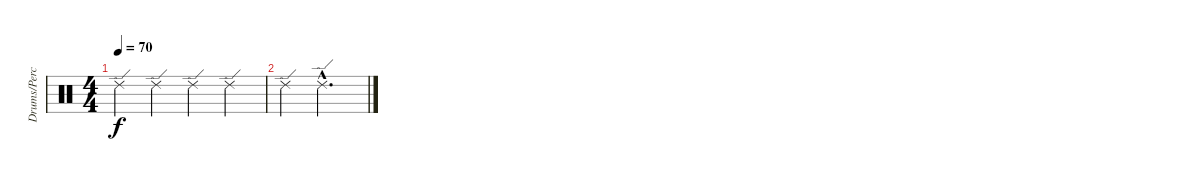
\track ("Drums/Percussion (Bengerg)" "Drums/Perc") {instrument percussion}
\staff {score}
\articulation defaults
\ts (4 4)
\tempo 70
\clef neutral
\ks c "Ride (edge) 2".4{dy f} "Ride (edge) 2".4 "Ride (edge) 2".4 "Ride (edge) 2".4
|
"Ride (edge) 2".4 "Ride (edge) 2"{hac}.2{d}
